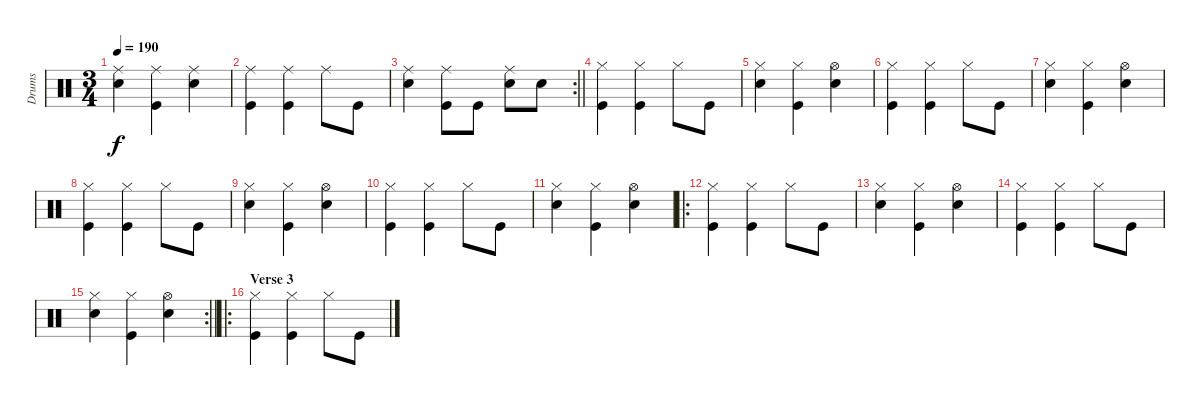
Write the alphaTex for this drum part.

\track ("Drums" "Drums") {instrument percussion bank 1}
\staff {score}
\articulation defaults
\ts (3 4)
\tempo 190
\clef neutral
\ks c
("Snare (hit) 2" "Ride (middle)").4{dy f} ("Kick (hit)" "Ride (middle)").4 ("Snare (hit) 2" "Ride (middle)").4 |
("Kick (hit)" "Ride (middle)").4 ("Kick (hit)" "Ride (middle)").4 "Ride (middle)".8 "Kick (hit)".8 |
\rc 2
\barLineRight lightlight
("Snare (hit) 2" "Ride (middle)").4 ("Kick (hit)" "Ride (middle)").8 "Kick (hit)".8 ("Snare (hit) 2" "Ride (middle)").8 "Snare (hit) 2".8 |
("Kick (hit)" "Hi-Hat (closed)").4 ("Kick (hit)" "Hi-Hat (closed)").4 "Hi-Hat (closed)".8 "Kick (hit)".8 |
("Snare (hit) 2" "Hi-Hat (closed)").4 ("Kick (hit)" "Hi-Hat (closed)").4 ("Snare (hit) 2" "Hi-Hat (open)").4 |
("Kick (hit)" "Hi-Hat (closed)").4 ("Kick (hit)" "Hi-Hat (closed)").4 "Hi-Hat (closed)".8 "Kick (hit)".8 |
("Snare (hit) 2" "Hi-Hat (closed)").4 ("Kick (hit)" "Hi-Hat (closed)").4 ("Snare (hit) 2" "Hi-Hat (open)").4 |
("Kick (hit)" "Hi-Hat (closed)").4 ("Kick (hit)" "Hi-Hat (closed)").4 "Hi-Hat (closed)".8 "Kick (hit)".8 |
("Snare (hit) 2" "Hi-Hat (closed)").4 ("Kick (hit)" "Hi-Hat (closed)").4 ("Snare (hit) 2" "Hi-Hat (open)").4 |
("Kick (hit)" "Hi-Hat (closed)").4 ("Kick (hit)" "Hi-Hat (closed)").4 "Hi-Hat (closed)".8 "Kick (hit)".8 |
("Snare (hit) 2" "Hi-Hat (closed)").4 ("Kick (hit)" "Hi-Hat (closed)").4 ("Snare (hit) 2" "Hi-Hat (open)").4 |
\ro
("Kick (hit)" "Hi-Hat (closed)").4 ("Kick (hit)" "Hi-Hat (closed)").4 "Hi-Hat (closed)".8 "Kick (hit)".8 |
("Snare (hit) 2" "Hi-Hat (closed)").4 ("Kick (hit)" "Hi-Hat (closed)").4 ("Snare (hit) 2" "Hi-Hat (open)").4 |
("Kick (hit)" "Hi-Hat (closed)").4 ("Kick (hit)" "Hi-Hat (closed)").4 "Hi-Hat (closed)".8 "Kick (hit)".8 |
\rc 2
\barLineRight lightlight
("Snare (hit) 2" "Hi-Hat (closed)").4 ("Kick (hit)" "Hi-Hat (closed)").4 ("Snare (hit) 2" "Hi-Hat (open)").4 |
\ro
\section ("" "Verse 3")
("Kick (hit)" "Hi-Hat (closed)").4 ("Kick (hit)" "Hi-Hat (closed)").4 "Hi-Hat (closed)".8 "Kick (hit)".8
